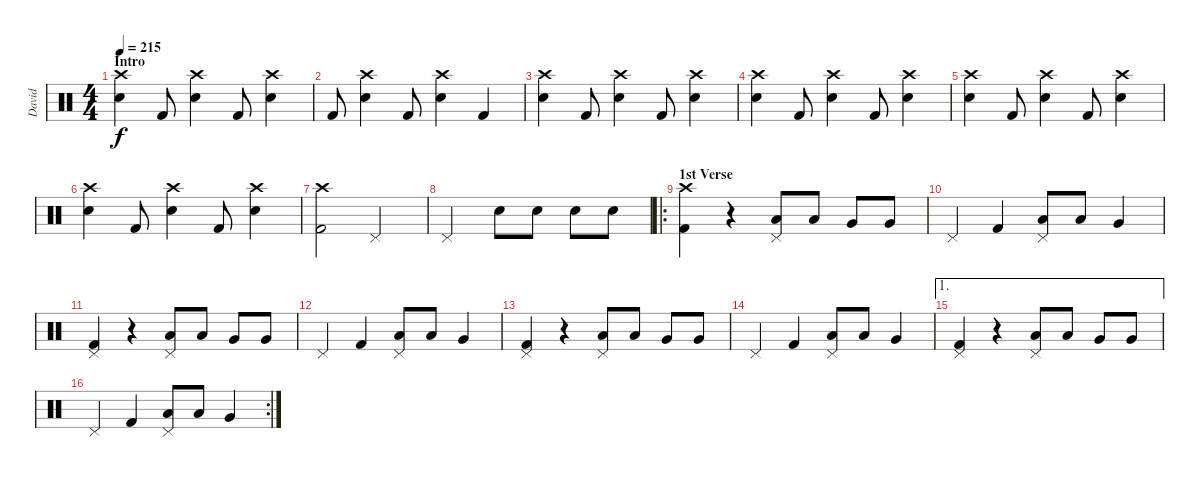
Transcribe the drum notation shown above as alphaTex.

\track ("David" "David") {instrument percussion}
\staff {score}
\articulation defaults
\ts (4 4)
\section ("" "Intro")
\tempo 215
\clef neutral
\ks c
("Crash high (hit)" "Electric Snare (hit)").4{dy f} "Kick (hit) 2".8 ("Crash high (hit)" "Electric Snare (hit)").4 "Kick (hit) 2".8 ("Crash high (hit)" "Electric Snare (hit)").4 |
"Kick (hit) 2".8 ("Crash high (hit)" "Electric Snare (hit)").4 "Kick (hit) 2".8 ("Crash high (hit)" "Electric Snare (hit)").4 "Kick (hit) 2".4 |
("Crash high (hit)" "Electric Snare (hit)").4 "Kick (hit) 2".8 ("Crash high (hit)" "Electric Snare (hit)").4 "Kick (hit) 2".8 ("Crash high (hit)" "Electric Snare (hit)").4 |
("Crash high (hit)" "Electric Snare (hit)").4 "Kick (hit) 2".8 ("Crash high (hit)" "Electric Snare (hit)").4 "Kick (hit) 2".8 ("Crash high (hit)" "Electric Snare (hit)").4 |
("Crash high (hit)" "Electric Snare (hit)").4 "Kick (hit) 2".8 ("Crash high (hit)" "Electric Snare (hit)").4 "Kick (hit) 2".8 ("Crash high (hit)" "Electric Snare (hit)").4 |
("Crash high (hit)" "Electric Snare (hit)").4 "Kick (hit) 2".8 ("Crash high (hit)" "Electric Snare (hit)").4 "Kick (hit) 2".8 ("Crash high (hit)" "Electric Snare (hit)").4 |
("Crash high (hit)" "Kick (hit) 2").2 "Pedal Hi-Hat (hit)".2 |
"Pedal Hi-Hat (hit)".2 "Electric Snare (hit)".8 "Electric Snare (hit)".8 "Electric Snare (hit)".8 "Electric Snare (hit)".8 |
\ro
\section ("" "1st Verse")
("Crash high (hit)" "Kick (hit) 2").4 r.4 ("Pedal Hi-Hat (hit)" "Low Tom (hit)").8 "Low Tom (hit)".8 "Very Low Tom (hit)".8 "Very Low Tom (hit)".8 |
"Pedal Hi-Hat (hit)".4 "Kick (hit) 2".4 ("Pedal Hi-Hat (hit)" "Low Tom (hit)").8 "Low Tom (hit)".8 "Very Low Tom (hit)".4 |
("Pedal Hi-Hat (hit)" "Kick (hit) 2").4 r.4 ("Pedal Hi-Hat (hit)" "Low Tom (hit)").8 "Low Tom (hit)".8 "Very Low Tom (hit)".8 "Very Low Tom (hit)".8 |
"Pedal Hi-Hat (hit)".4 "Kick (hit) 2".4 ("Pedal Hi-Hat (hit)" "Low Tom (hit)").8 "Low Tom (hit)".8 "Very Low Tom (hit)".4 |
("Pedal Hi-Hat (hit)" "Kick (hit) 2").4 r.4 ("Pedal Hi-Hat (hit)" "Low Tom (hit)").8 "Low Tom (hit)".8 "Very Low Tom (hit)".8 "Very Low Tom (hit)".8 |
"Pedal Hi-Hat (hit)".4 "Kick (hit) 2".4 ("Pedal Hi-Hat (hit)" "Low Tom (hit)").8 "Low Tom (hit)".8 "Very Low Tom (hit)".4 |
\ae 1
("Pedal Hi-Hat (hit)" "Kick (hit) 2").4 r.4 ("Pedal Hi-Hat (hit)" "Low Tom (hit)").8 "Low Tom (hit)".8 "Very Low Tom (hit)".8 "Very Low Tom (hit)".8 |
\rc 2 "Pedal Hi-Hat (hit)".4 "Kick (hit) 2".4
("Pedal Hi-Hat (hit)" "Low Tom (hit)").8 "Low Tom (hit)".8 "Very Low Tom (hit)".4
